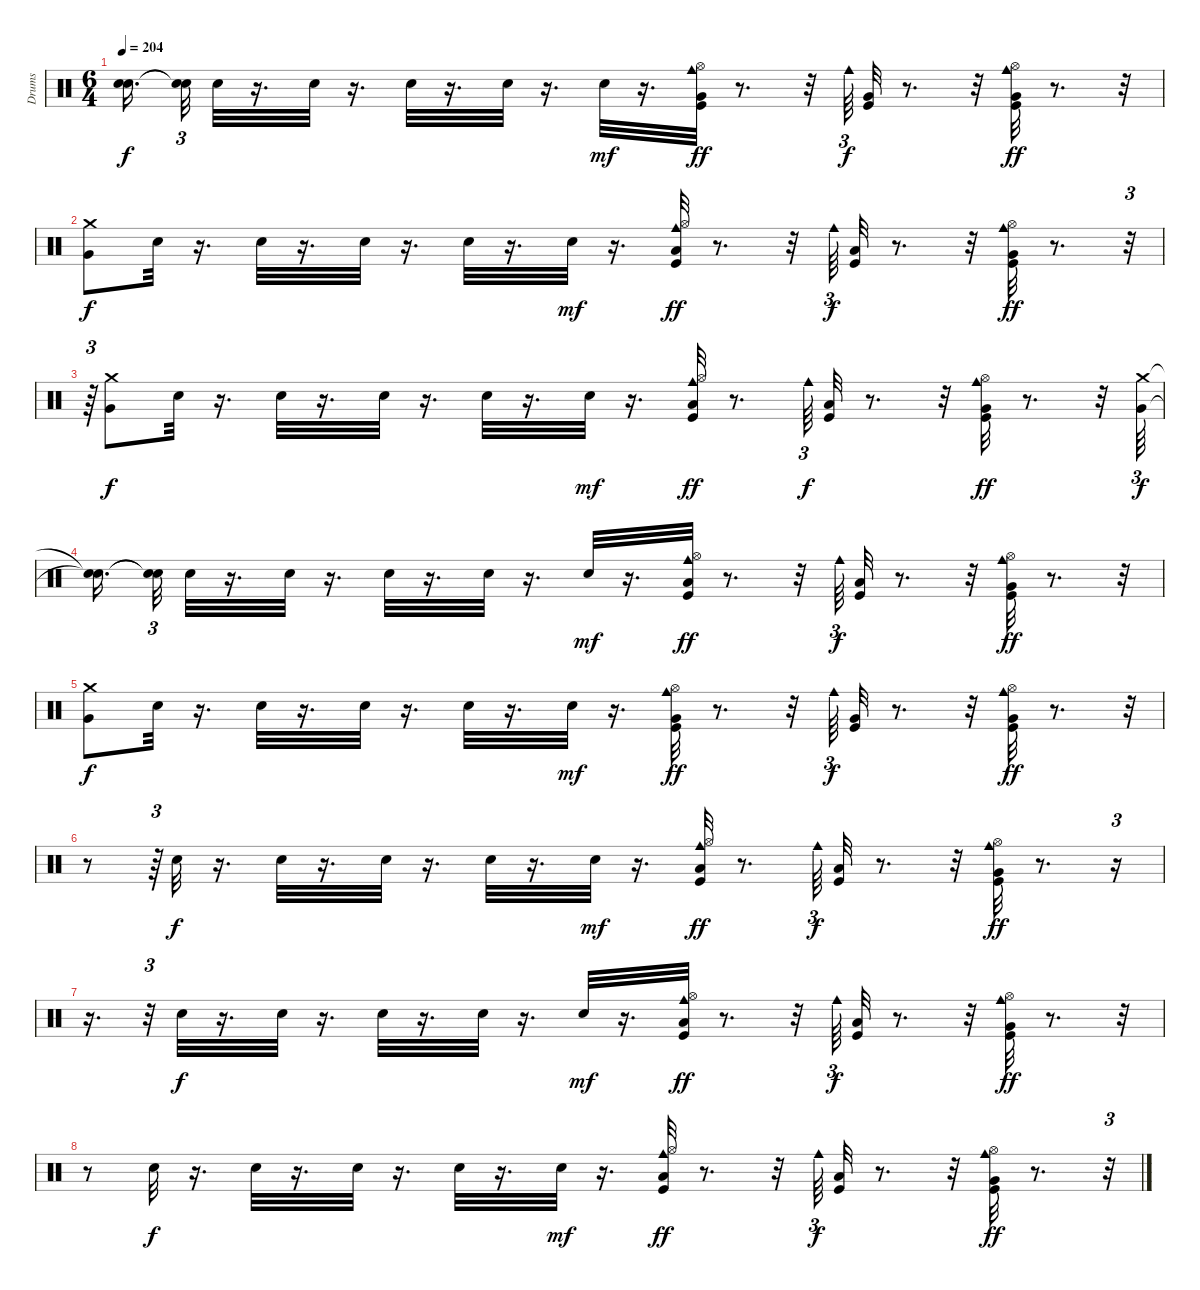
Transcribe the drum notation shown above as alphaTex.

\track ("Drums" "Drums") {instrument percussion}
\staff {score}
\articulation defaults
\ts (6 4)
\tempo 204
\clef neutral
\ks c
("Snare (hit)"{t} "Snare (hit)"{t}).16{d dy f} ("Snare (hit)"{t} "Snare (hit)"{t}).32{tu (3 2)} "Snare (hit) 2".32 r.16{d} "Snare (hit) 2".32 r.16{d} "Snare (hit) 2".32 r.16{d} "Snare (hit) 2".32 r.16{d} "Electric Snare (hit)".32{dy mf} r.16{d} ("Very Low Tom (hit)" "Kick (hit)" "Hi-Hat (open)" "Cowbell medium (hit)").32{dy ff} r.8{d} r.32 "Cowbell medium (hit)".64{tu (3 2) dy f} ("Very Low Tom (hit)" "Kick (hit)").32 r.8{d} r.32 ("Very Low Tom (hit)" "Hi-Hat (open)" "Kick (hit)" "Cowbell medium (hit)").32{dy ff} r.8{d} r.32 |
("Very Low Tom (hit)" "Crash medium (hit)").8{dy f} "Snare (hit) 2".32 r.16{d} "Snare (hit) 2".32 r.16{d} "Snare (hit) 2".32 r.16{d} "Snare (hit) 2".32 r.16{d} "Snare (hit) 2".32{dy mf} r.16{d} ("Kick (hit)" "Hi-Hat (open)" "Cowbell medium (hit)" "Low Floor Tom (hit)").32{dy ff} r.8{d} r.32 "Cowbell medium (hit)".64{tu (3 2) dy f} ("Kick (hit)" "Low Floor Tom (hit)").32 r.8{d} r.32 ("Hi-Hat (open)" "Kick (hit)" "Cowbell medium (hit)" "Very Low Tom (hit)").32{dy ff} r.8{d} r.32{tu (3 2)} |
r.64{tu (3 2)} ("Very Low Tom (hit)" "Crash medium (hit)").8{dy f} "Snare (hit) 2".32 r.16{d} "Snare (hit) 2".32 r.16{d} "Snare (hit) 2".32 r.16{d} "Snare (hit) 2".32 r.16{d} "Snare (hit) 2".32{dy mf} r.16{d} ("Kick (hit)" "Hi-Hat (open)" "Cowbell medium (hit)" "Low Floor Tom (hit)").32{dy ff} r.8{d} "Cowbell medium (hit)".64{tu (3 2) dy f} ("Kick (hit)" "Low Floor Tom (hit)").32 r.8{d} r.32 ("Hi-Hat (open)" "Kick (hit)" "Cowbell medium (hit)" "Very Low Tom (hit)").32{dy ff} r.8{d} r.32 ("Very Low Tom (hit)" "Crash medium (hit)").64{tu (3 2) dy f} |
("Snare (hit)"{t} "Snare (hit)"{t}).16{d} ("Snare (hit)"{t} "Snare (hit)"{t}).32{tu (3 2)} "Snare (hit) 2".32 r.16{d} "Snare (hit) 2".32 r.16{d} "Snare (hit) 2".32 r.16{d} "Snare (hit) 2".32 r.16{d} "Snare (hit) 2".32{dy mf} r.16{d} ("Kick (hit)" "Hi-Hat (open)" "Cowbell medium (hit)" "Low Floor Tom (hit)").32{dy ff} r.8{d} r.32 "Cowbell medium (hit)".64{tu (3 2) dy f} ("Kick (hit)" "Low Floor Tom (hit)").32 r.8{d} r.32 ("Hi-Hat (open)" "Kick (hit)" "Cowbell medium (hit)" "Very Low Tom (hit)").32{dy ff} r.8{d} r.32 |
("Very Low Tom (hit)" "Crash medium (hit)").8{dy f} "Snare (hit) 2".32 r.16{d} "Snare (hit) 2".32 r.16{d} "Snare (hit) 2".32 r.16{d} "Snare (hit) 2".32 r.16{d} "Electric Snare (hit)".32{dy mf} r.16{d} ("Very Low Tom (hit)" "Kick (hit)" "Hi-Hat (open)" "Cowbell medium (hit)").32{dy ff} r.8{d} r.32 "Cowbell medium (hit)".64{tu (3 2) dy f} ("Very Low Tom (hit)" "Kick (hit)").32 r.8{d} r.32 ("Very Low Tom (hit)" "Hi-Hat (open)" "Kick (hit)" "Cowbell medium (hit)").32{dy ff} r.8{d} r.32{tu (3 2)} |
r.8 r.64{tu (3 2)} "Snare (hit) 2".32{dy f} r.16{d} "Snare (hit) 2".32 r.16{d} "Snare (hit) 2".32 r.16{d} "Snare (hit) 2".32 r.16{d} "Snare (hit) 2".32{dy mf} r.16{d} ("Kick (hit)" "Hi-Hat (open)" "Cowbell medium (hit)" "Low Floor Tom (hit)").32{dy ff} r.8{d} "Cowbell medium (hit)".64{tu (3 2) dy f} ("Kick (hit)" "Low Floor Tom (hit)").32 r.8{d} r.32 ("Hi-Hat (open)" "Kick (hit)" "Cowbell medium (hit)" "Very Low Tom (hit)").32{dy ff} r.8{d} r.16{tu (3 2)} |
r.16{d} r.32{tu (3 2)} "Snare (hit) 2".32{dy f} r.16{d} "Snare (hit) 2".32 r.16{d} "Snare (hit) 2".32 r.16{d} "Snare (hit) 2".32 r.16{d} "Snare (hit) 2".32{dy mf} r.16{d} ("Kick (hit)" "Hi-Hat (open)" "Cowbell medium (hit)" "Low Floor Tom (hit)").32{dy ff} r.8{d} r.32 "Cowbell medium (hit)".64{tu (3 2) dy f} ("Kick (hit)" "Low Floor Tom (hit)").32 r.8{d} r.32 ("Hi-Hat (open)" "Kick (hit)" "Cowbell medium (hit)" "Very Low Tom (hit)").32{dy ff} r.8{d} r.32 |
r.8 "Snare (hit) 2".32{dy f} r.16{d} "Snare (hit) 2".32 r.16{d} "Snare (hit) 2".32 r.16{d} "Snare (hit) 2".32 r.16{d} "Snare (hit) 2".32{dy mf} r.16{d} ("Kick (hit)" "Hi-Hat (open)" "Cowbell medium (hit)" "Low Floor Tom (hit)").32{dy ff} r.8{d} r.32 "Cowbell medium (hit)".64{tu (3 2) dy f} ("Kick (hit)" "Low Floor Tom (hit)").32 r.8{d} r.32 ("Hi-Hat (open)" "Kick (hit)" "Cowbell medium (hit)" "Very Low Tom (hit)").32{dy ff} r.8{d} r.32{tu (3 2)}
